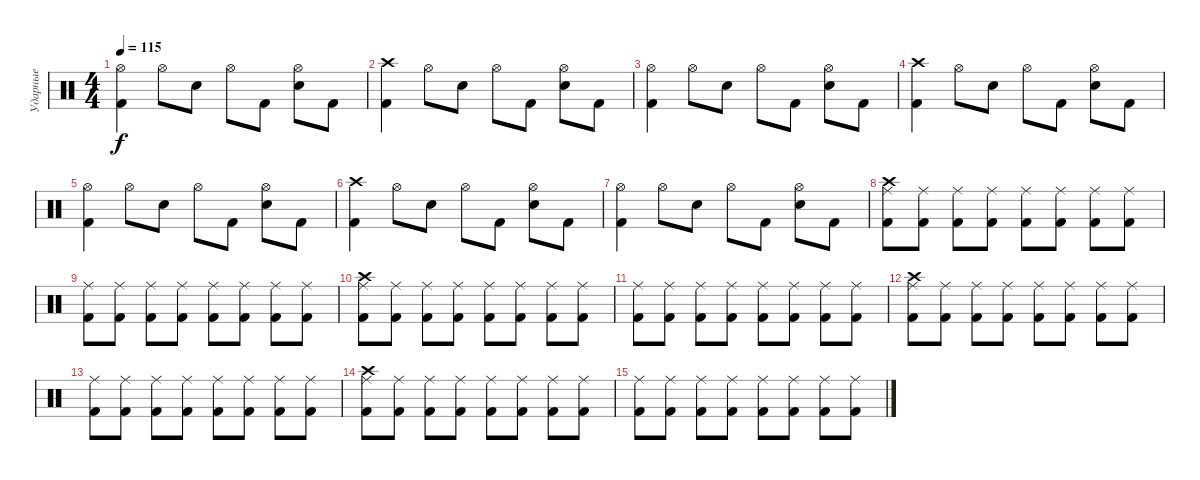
\track ("Ударные" "Ударные") {instrument percussion}
\staff {score}
\articulation defaults
\ts (4 4)
\tempo 115
\clef neutral
\ks c
("Hi-Hat (open)" "Kick (hit) 2").4{dy f} "Hi-Hat (open)".8 "Snare (hit) 2".8 "Hi-Hat (open)".8 "Kick (hit) 2".8 ("Hi-Hat (open)" "Snare (hit) 2").8 "Kick (hit) 2".8 |
("Crash high (hit)" "Kick (hit) 2").4 "Hi-Hat (open)".8 "Snare (hit) 2".8 "Hi-Hat (open)".8 "Kick (hit) 2".8 ("Hi-Hat (open)" "Snare (hit) 2").8 "Kick (hit) 2".8 |
("Hi-Hat (open)" "Kick (hit) 2").4 "Hi-Hat (open)".8 "Snare (hit) 2".8 "Hi-Hat (open)".8 "Kick (hit) 2".8 ("Hi-Hat (open)" "Snare (hit) 2").8 "Kick (hit) 2".8 |
("Crash high (hit)" "Kick (hit) 2").4 "Hi-Hat (open)".8 "Snare (hit) 2".8 "Hi-Hat (open)".8 "Kick (hit) 2".8 ("Hi-Hat (open)" "Snare (hit) 2").8 "Kick (hit) 2".8 |
("Hi-Hat (open)" "Kick (hit) 2").4 "Hi-Hat (open)".8 "Snare (hit) 2".8 "Hi-Hat (open)".8 "Kick (hit) 2".8 ("Hi-Hat (open)" "Snare (hit) 2").8 "Kick (hit) 2".8 |
("Crash high (hit)" "Kick (hit) 2").4 "Hi-Hat (open)".8 "Snare (hit) 2".8 "Hi-Hat (open)".8 "Kick (hit) 2".8 ("Hi-Hat (open)" "Snare (hit) 2").8 "Kick (hit) 2".8 |
("Hi-Hat (open)" "Kick (hit) 2").4 "Hi-Hat (open)".8 "Snare (hit) 2".8 "Hi-Hat (open)".8 "Kick (hit) 2".8 ("Hi-Hat (open)" "Snare (hit) 2").8 "Kick (hit) 2".8 |
("Ride (middle)" "Crash high (hit)" "Kick (hit) 2").8 ("Ride (middle)" "Kick (hit) 2").8 ("Ride (middle)" "Kick (hit) 2").8 ("Ride (middle)" "Kick (hit) 2").8 ("Ride (middle)" "Kick (hit) 2").8 ("Ride (middle)" "Kick (hit) 2").8 ("Ride (middle)" "Kick (hit) 2").8 ("Ride (middle)" "Kick (hit) 2").8 |
("Ride (middle)" "Kick (hit) 2").8 ("Ride (middle)" "Kick (hit) 2").8 ("Ride (middle)" "Kick (hit) 2").8 ("Ride (middle)" "Kick (hit) 2").8 ("Ride (middle)" "Kick (hit) 2").8 ("Ride (middle)" "Kick (hit) 2").8 ("Ride (middle)" "Kick (hit) 2").8 ("Ride (middle)" "Kick (hit) 2").8 |
("Ride (middle)" "Crash high (hit)" "Kick (hit) 2").8 ("Ride (middle)" "Kick (hit) 2").8 ("Ride (middle)" "Kick (hit) 2").8 ("Ride (middle)" "Kick (hit) 2").8 ("Ride (middle)" "Kick (hit) 2").8 ("Ride (middle)" "Kick (hit) 2").8 ("Ride (middle)" "Kick (hit) 2").8 ("Ride (middle)" "Kick (hit) 2").8 |
("Ride (middle)" "Kick (hit) 2").8 ("Ride (middle)" "Kick (hit) 2").8 ("Ride (middle)" "Kick (hit) 2").8 ("Ride (middle)" "Kick (hit) 2").8 ("Ride (middle)" "Kick (hit) 2").8 ("Ride (middle)" "Kick (hit) 2").8 ("Ride (middle)" "Kick (hit) 2").8 ("Ride (middle)" "Kick (hit) 2").8 |
("Ride (middle)" "Crash high (hit)" "Kick (hit) 2").8 ("Ride (middle)" "Kick (hit) 2").8 ("Ride (middle)" "Kick (hit) 2").8 ("Ride (middle)" "Kick (hit) 2").8 ("Ride (middle)" "Kick (hit) 2").8 ("Ride (middle)" "Kick (hit) 2").8 ("Ride (middle)" "Kick (hit) 2").8 ("Ride (middle)" "Kick (hit) 2").8 |
("Ride (middle)" "Kick (hit) 2").8 ("Ride (middle)" "Kick (hit) 2").8 ("Ride (middle)" "Kick (hit) 2").8 ("Ride (middle)" "Kick (hit) 2").8 ("Ride (middle)" "Kick (hit) 2").8 ("Ride (middle)" "Kick (hit) 2").8 ("Ride (middle)" "Kick (hit) 2").8 ("Ride (middle)" "Kick (hit) 2").8 |
("Ride (middle)" "Crash high (hit)" "Kick (hit) 2").8 ("Ride (middle)" "Kick (hit) 2").8 ("Ride (middle)" "Kick (hit) 2").8 ("Ride (middle)" "Kick (hit) 2").8 ("Ride (middle)" "Kick (hit) 2").8 ("Ride (middle)" "Kick (hit) 2").8 ("Ride (middle)" "Kick (hit) 2").8 ("Ride (middle)" "Kick (hit) 2").8 |
("Ride (middle)" "Kick (hit) 2").8 ("Ride (middle)" "Kick (hit) 2").8 ("Ride (middle)" "Kick (hit) 2").8 ("Ride (middle)" "Kick (hit) 2").8 ("Ride (middle)" "Kick (hit) 2").8 ("Ride (middle)" "Kick (hit) 2").8 ("Ride (middle)" "Kick (hit) 2").8 ("Ride (middle)" "Kick (hit) 2").8
